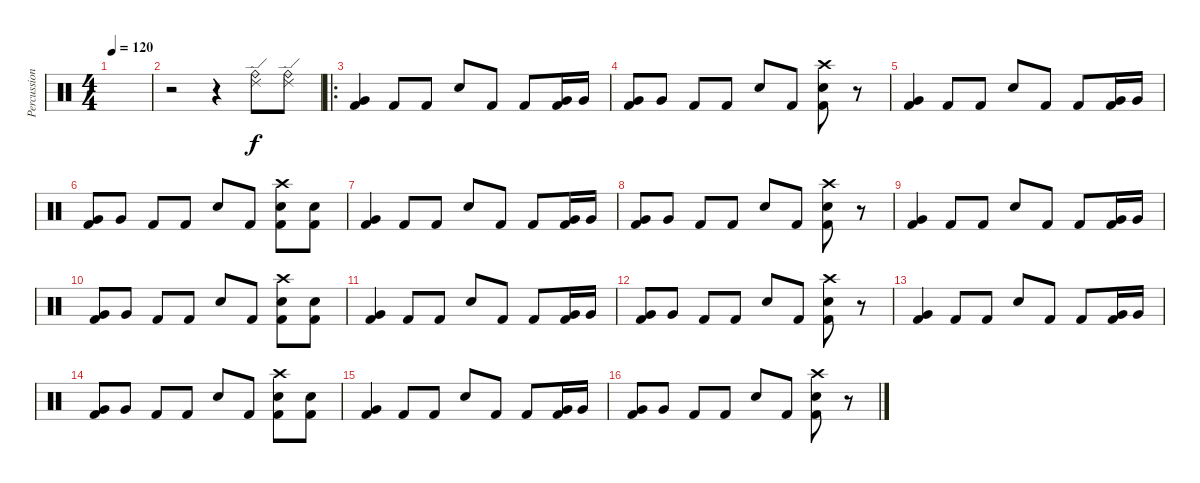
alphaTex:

\track ("Percussion" "Percussion") {instrument percussion}
\staff {score}
\articulation defaults
\ts (4 4)
\tempo 120
\clef neutral
\ks c
|
r.2 r.4 ("Ride (edge) 2" "Ride (bell)").8 ("Ride (edge) 2" "Ride (bell)").8 |
\ro
("Very Low Tom (hit)" "Kick (hit) 2").4{dy f} "Kick (hit) 2".8 "Kick (hit) 2".8 "Electric Snare (hit)".8 "Kick (hit) 2".8 "Kick (hit) 2".8 ("Very Low Tom (hit)" "Kick (hit) 2").16 "Very Low Tom (hit)".16 |
("Very Low Tom (hit)" "Kick (hit) 2").8 "Very Low Tom (hit)".8 "Kick (hit) 2".8 "Kick (hit) 2".8 "Electric Snare (hit)".8 "Kick (hit) 2".8 ("Crash high (hit)" "Electric Snare (hit)" "Kick (hit) 2").8 r.8 |
("Very Low Tom (hit)" "Kick (hit) 2").4 "Kick (hit) 2".8 "Kick (hit) 2".8 "Electric Snare (hit)".8 "Kick (hit) 2".8 "Kick (hit) 2".8 ("Very Low Tom (hit)" "Kick (hit) 2").16 "Very Low Tom (hit)".16 |
("Very Low Tom (hit)" "Kick (hit) 2").8 "Very Low Tom (hit)".8 "Kick (hit) 2".8 "Kick (hit) 2".8 "Electric Snare (hit)".8 "Kick (hit) 2".8 ("Crash high (hit)" "Electric Snare (hit)" "Kick (hit) 2").8 ("Electric Snare (hit)" "Kick (hit) 2").8 |
("Very Low Tom (hit)" "Kick (hit) 2").4 "Kick (hit) 2".8 "Kick (hit) 2".8 "Electric Snare (hit)".8 "Kick (hit) 2".8 "Kick (hit) 2".8 ("Very Low Tom (hit)" "Kick (hit) 2").16 "Very Low Tom (hit)".16 |
("Very Low Tom (hit)" "Kick (hit) 2").8 "Very Low Tom (hit)".8 "Kick (hit) 2".8 "Kick (hit) 2".8 "Electric Snare (hit)".8 "Kick (hit) 2".8 ("Crash high (hit)" "Electric Snare (hit)" "Kick (hit) 2").8 r.8 |
("Very Low Tom (hit)" "Kick (hit) 2").4 "Kick (hit) 2".8 "Kick (hit) 2".8 "Electric Snare (hit)".8 "Kick (hit) 2".8 "Kick (hit) 2".8 ("Very Low Tom (hit)" "Kick (hit) 2").16 "Very Low Tom (hit)".16 |
("Very Low Tom (hit)" "Kick (hit) 2").8 "Very Low Tom (hit)".8 "Kick (hit) 2".8 "Kick (hit) 2".8 "Electric Snare (hit)".8 "Kick (hit) 2".8 ("Crash high (hit)" "Electric Snare (hit)" "Kick (hit) 2").8 ("Electric Snare (hit)" "Kick (hit) 2").8 |
("Very Low Tom (hit)" "Kick (hit) 2").4 "Kick (hit) 2".8 "Kick (hit) 2".8 "Electric Snare (hit)".8 "Kick (hit) 2".8 "Kick (hit) 2".8 ("Very Low Tom (hit)" "Kick (hit) 2").16 "Very Low Tom (hit)".16 |
("Very Low Tom (hit)" "Kick (hit) 2").8 "Very Low Tom (hit)".8 "Kick (hit) 2".8 "Kick (hit) 2".8 "Electric Snare (hit)".8 "Kick (hit) 2".8 ("Crash high (hit)" "Electric Snare (hit)" "Kick (hit) 2").8 r.8 |
("Very Low Tom (hit)" "Kick (hit) 2").4 "Kick (hit) 2".8 "Kick (hit) 2".8 "Electric Snare (hit)".8 "Kick (hit) 2".8 "Kick (hit) 2".8 ("Very Low Tom (hit)" "Kick (hit) 2").16 "Very Low Tom (hit)".16 |
("Very Low Tom (hit)" "Kick (hit) 2").8 "Very Low Tom (hit)".8 "Kick (hit) 2".8 "Kick (hit) 2".8 "Electric Snare (hit)".8 "Kick (hit) 2".8 ("Crash high (hit)" "Electric Snare (hit)" "Kick (hit) 2").8 ("Electric Snare (hit)" "Kick (hit) 2").8 |
("Very Low Tom (hit)" "Kick (hit) 2").4 "Kick (hit) 2".8 "Kick (hit) 2".8 "Electric Snare (hit)".8 "Kick (hit) 2".8 "Kick (hit) 2".8 ("Very Low Tom (hit)" "Kick (hit) 2").16 "Very Low Tom (hit)".16 |
("Very Low Tom (hit)" "Kick (hit) 2").8 "Very Low Tom (hit)".8 "Kick (hit) 2".8 "Kick (hit) 2".8 "Electric Snare (hit)".8 "Kick (hit) 2".8 ("Crash high (hit)" "Electric Snare (hit)" "Kick (hit) 2").8 r.8
